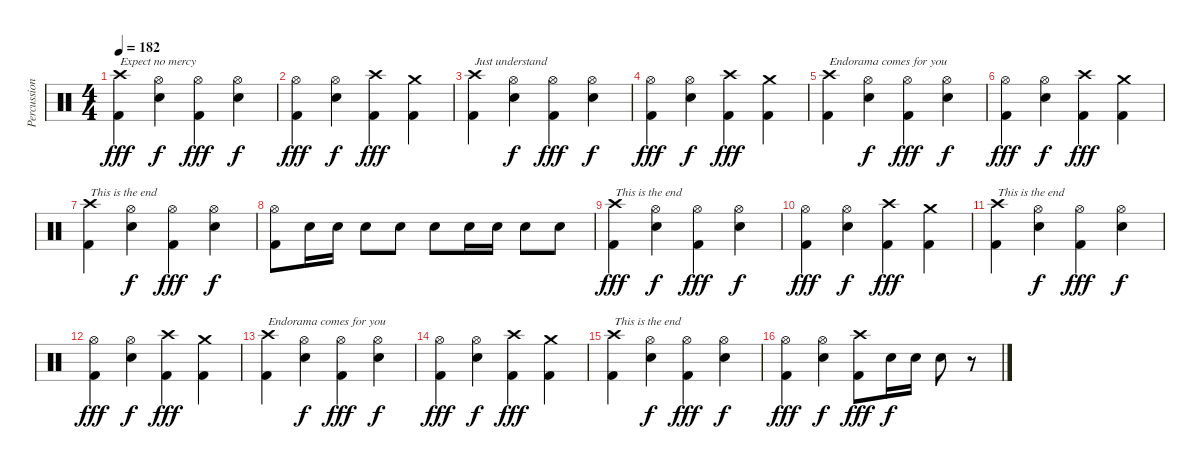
\track ("Percussion" "Percussion") {instrument percussion}
\staff {score}
\articulation defaults
\ts (4 4)
\tempo 182
\clef neutral
\ks c
("Crash high (hit)" "Kick (hit) 2").4{txt "Expect no mercy" dy fff} ("Hi-Hat (open)" "Snare (hit) 2").4{dy f} ("Hi-Hat (open)" "Kick (hit) 2").4{dy fff} ("Hi-Hat (open)" "Snare (hit) 2").4{dy f} |
("Hi-Hat (open)" "Kick (hit) 2").4{dy fff} ("Hi-Hat (open)" "Snare (hit) 2").4{dy f} ("Crash high (hit)" "Kick (hit) 2").4{dy fff} ("Crash medium (hit)" "Kick (hit) 2").4 |
("Crash high (hit)" "Kick (hit) 2").4{txt "Just understand"} ("Hi-Hat (open)" "Snare (hit) 2").4{dy f} ("Hi-Hat (open)" "Kick (hit) 2").4{dy fff} ("Hi-Hat (open)" "Snare (hit) 2").4{dy f} |
("Hi-Hat (open)" "Kick (hit) 2").4{dy fff} ("Hi-Hat (open)" "Snare (hit) 2").4{dy f} ("Crash high (hit)" "Kick (hit) 2").4{dy fff} ("Crash medium (hit)" "Kick (hit) 2").4 |
("Crash high (hit)" "Kick (hit) 2").4{txt "Endorama comes for you"} ("Hi-Hat (open)" "Snare (hit) 2").4{dy f} ("Hi-Hat (open)" "Kick (hit) 2").4{dy fff} ("Hi-Hat (open)" "Snare (hit) 2").4{dy f} |
("Hi-Hat (open)" "Kick (hit) 2").4{dy fff} ("Hi-Hat (open)" "Snare (hit) 2").4{dy f} ("Crash high (hit)" "Kick (hit) 2").4{dy fff} ("Crash medium (hit)" "Kick (hit) 2").4 |
("Crash high (hit)" "Kick (hit) 2").4{txt "This is the end "} ("Hi-Hat (open)" "Snare (hit) 2").4{dy f} ("Hi-Hat (open)" "Kick (hit) 2").4{dy fff} ("Hi-Hat (open)" "Snare (hit) 2").4{dy f} |
("Hi-Hat (open)" "Kick (hit) 2").8 "Snare (hit) 2".16 "Snare (hit) 2".16 "Snare (hit) 2".8 "Snare (hit) 2".8 "Snare (hit) 2".8 "Snare (hit) 2".16 "Snare (hit) 2".16 "Snare (hit) 2".8 "Snare (hit) 2".8 |
("Crash high (hit)" "Kick (hit) 2").4{txt "This is the end " dy fff} ("Hi-Hat (open)" "Snare (hit) 2").4{dy f} ("Hi-Hat (open)" "Kick (hit) 2").4{dy fff} ("Hi-Hat (open)" "Snare (hit) 2").4{dy f} |
("Hi-Hat (open)" "Kick (hit) 2").4{dy fff} ("Hi-Hat (open)" "Snare (hit) 2").4{dy f} ("Crash high (hit)" "Kick (hit) 2").4{dy fff} ("Crash medium (hit)" "Kick (hit) 2").4 |
("Crash high (hit)" "Kick (hit) 2").4{txt "This is the end"} ("Hi-Hat (open)" "Snare (hit) 2").4{dy f} ("Hi-Hat (open)" "Kick (hit) 2").4{dy fff} ("Hi-Hat (open)" "Snare (hit) 2").4{dy f} |
("Hi-Hat (open)" "Kick (hit) 2").4{dy fff} ("Hi-Hat (open)" "Snare (hit) 2").4{dy f} ("Crash high (hit)" "Kick (hit) 2").4{dy fff} ("Crash medium (hit)" "Kick (hit) 2").4 |
("Crash high (hit)" "Kick (hit) 2").4{txt "Endorama comes for you"} ("Hi-Hat (open)" "Snare (hit) 2").4{dy f} ("Hi-Hat (open)" "Kick (hit) 2").4{dy fff} ("Hi-Hat (open)" "Snare (hit) 2").4{dy f} |
("Hi-Hat (open)" "Kick (hit) 2").4{dy fff} ("Hi-Hat (open)" "Snare (hit) 2").4{dy f} ("Crash high (hit)" "Kick (hit) 2").4{dy fff} ("Crash medium (hit)" "Kick (hit) 2").4 |
("Crash high (hit)" "Kick (hit) 2").4{txt "This is the end"} ("Hi-Hat (open)" "Snare (hit) 2").4{dy f} ("Hi-Hat (open)" "Kick (hit) 2").4{dy fff} ("Hi-Hat (open)" "Snare (hit) 2").4{dy f} |
("Hi-Hat (open)" "Kick (hit) 2").4{dy fff} ("Hi-Hat (open)" "Snare (hit) 2").4{dy f} ("Crash high (hit)" "Kick (hit) 2").8{dy fff} "Snare (hit) 2".16{dy f} "Snare (hit) 2".16 "Snare (hit) 2".8 r.8
